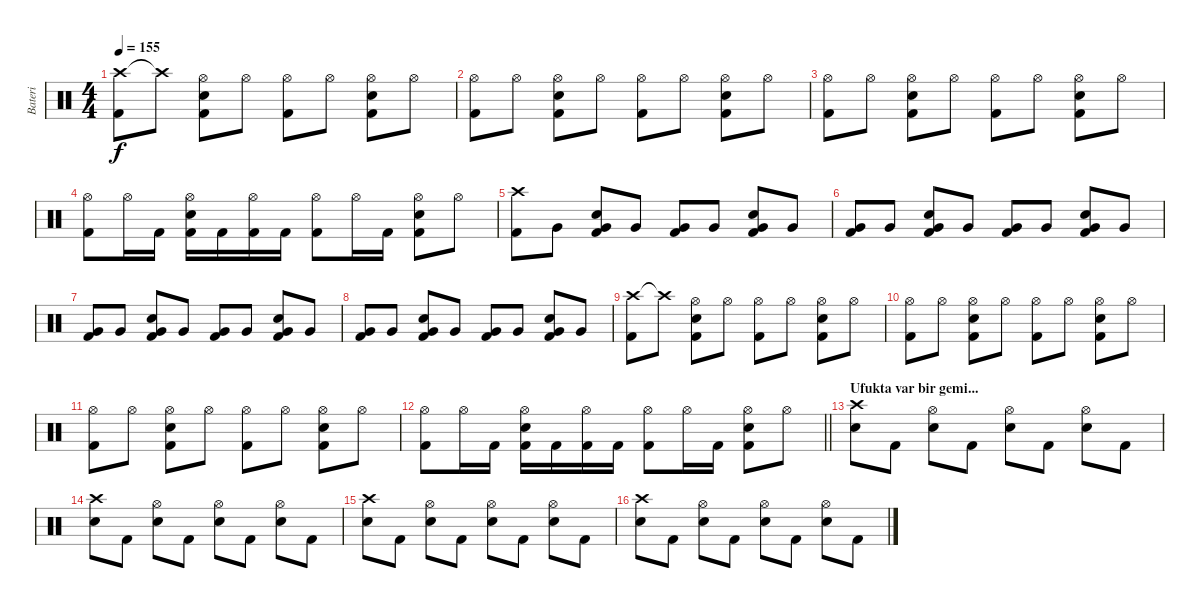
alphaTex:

\track ("Bateri" "Bateri") {instrument percussion}
\staff {score}
\articulation defaults
\ts (4 4)
\tempo 155
\clef neutral
\ks c
("Crash high (hit)" "Kick (hit) 2").8{dy f} "Crash high (hit)"{t}.8 ("Hi-Hat (open)" "Snare (hit) 2" "Kick (hit) 2").8 "Hi-Hat (open)".8 ("Hi-Hat (open)" "Kick (hit) 2").8 "Hi-Hat (open)".8 ("Hi-Hat (open)" "Snare (hit) 2" "Kick (hit) 2").8 "Hi-Hat (open)".8 |
("Hi-Hat (open)" "Kick (hit) 2").8 "Hi-Hat (open)".8 ("Hi-Hat (open)" "Snare (hit) 2" "Kick (hit) 2").8 "Hi-Hat (open)".8 ("Hi-Hat (open)" "Kick (hit) 2").8 "Hi-Hat (open)".8 ("Hi-Hat (open)" "Snare (hit) 2" "Kick (hit) 2").8 "Hi-Hat (open)".8 |
("Hi-Hat (open)" "Kick (hit) 2").8 "Hi-Hat (open)".8 ("Hi-Hat (open)" "Snare (hit) 2" "Kick (hit) 2").8 "Hi-Hat (open)".8 ("Hi-Hat (open)" "Kick (hit) 2").8 "Hi-Hat (open)".8 ("Hi-Hat (open)" "Snare (hit) 2" "Kick (hit) 2").8 "Hi-Hat (open)".8 |
("Hi-Hat (open)" "Kick (hit) 2").8 "Hi-Hat (open)".16 "Kick (hit) 2".16 ("Hi-Hat (open)" "Snare (hit) 2" "Kick (hit) 2").16 "Kick (hit) 2".16 ("Hi-Hat (open)" "Kick (hit) 2").16 "Kick (hit) 2".16 ("Hi-Hat (open)" "Kick (hit) 2").8 "Hi-Hat (open)".16 "Kick (hit) 2".16 ("Hi-Hat (open)" "Snare (hit) 2" "Kick (hit) 2").8 "Hi-Hat (open)".8 |
("Crash high (hit)" "Kick (hit) 2").8 "Very Low Tom (hit)".8 ("Very Low Tom (hit)" "Snare (hit) 2" "Kick (hit) 2").8 "Very Low Tom (hit)".8 ("Very Low Tom (hit)" "Kick (hit) 2").8 "Very Low Tom (hit)".8 ("Very Low Tom (hit)" "Snare (hit) 2" "Kick (hit) 2").8 "Very Low Tom (hit)".8 |
("Very Low Tom (hit)" "Kick (hit) 2").8 "Very Low Tom (hit)".8 ("Very Low Tom (hit)" "Snare (hit) 2" "Kick (hit) 2").8 "Very Low Tom (hit)".8 ("Very Low Tom (hit)" "Kick (hit) 2").8 "Very Low Tom (hit)".8 ("Very Low Tom (hit)" "Snare (hit) 2" "Kick (hit) 2").8 "Very Low Tom (hit)".8 |
("Very Low Tom (hit)" "Kick (hit) 2").8 "Very Low Tom (hit)".8 ("Very Low Tom (hit)" "Snare (hit) 2" "Kick (hit) 2").8 "Very Low Tom (hit)".8 ("Very Low Tom (hit)" "Kick (hit) 2").8 "Very Low Tom (hit)".8 ("Very Low Tom (hit)" "Snare (hit) 2" "Kick (hit) 2").8 "Very Low Tom (hit)".8 |
("Very Low Tom (hit)" "Kick (hit) 2").8 "Very Low Tom (hit)".8 ("Very Low Tom (hit)" "Snare (hit) 2" "Kick (hit) 2").8 "Very Low Tom (hit)".8 ("Very Low Tom (hit)" "Kick (hit) 2").8 "Very Low Tom (hit)".8 ("Very Low Tom (hit)" "Snare (hit) 2" "Kick (hit) 2").8 "Very Low Tom (hit)".8 |
("Crash high (hit)" "Kick (hit) 2").8 "Crash high (hit)"{t}.8 ("Hi-Hat (open)" "Snare (hit) 2" "Kick (hit) 2").8 "Hi-Hat (open)".8 ("Hi-Hat (open)" "Kick (hit) 2").8 "Hi-Hat (open)".8 ("Hi-Hat (open)" "Snare (hit) 2" "Kick (hit) 2").8 "Hi-Hat (open)".8 |
("Hi-Hat (open)" "Kick (hit) 2").8 "Hi-Hat (open)".8 ("Hi-Hat (open)" "Snare (hit) 2" "Kick (hit) 2").8 "Hi-Hat (open)".8 ("Hi-Hat (open)" "Kick (hit) 2").8 "Hi-Hat (open)".8 ("Hi-Hat (open)" "Snare (hit) 2" "Kick (hit) 2").8 "Hi-Hat (open)".8 |
("Hi-Hat (open)" "Kick (hit) 2").8 "Hi-Hat (open)".8 ("Hi-Hat (open)" "Snare (hit) 2" "Kick (hit) 2").8 "Hi-Hat (open)".8 ("Hi-Hat (open)" "Kick (hit) 2").8 "Hi-Hat (open)".8 ("Hi-Hat (open)" "Snare (hit) 2" "Kick (hit) 2").8 "Hi-Hat (open)".8 |
\barLineRight lightlight
("Hi-Hat (open)" "Kick (hit) 2").8 "Hi-Hat (open)".16 "Kick (hit) 2".16 ("Hi-Hat (open)" "Snare (hit) 2" "Kick (hit) 2").16 "Kick (hit) 2".16 ("Hi-Hat (open)" "Kick (hit) 2").16 "Kick (hit) 2".16 ("Hi-Hat (open)" "Kick (hit) 2").8 "Hi-Hat (open)".16 "Kick (hit) 2".16 ("Hi-Hat (open)" "Snare (hit) 2" "Kick (hit) 2").8 "Hi-Hat (open)".8 |
\section ("" "Ufukta var bir gemi...")
("Crash high (hit)" "Snare (hit) 2").8 "Kick (hit) 2".8 ("Hi-Hat (open)" "Snare (hit) 2").8 "Kick (hit) 2".8 ("Hi-Hat (open)" "Snare (hit) 2").8 "Kick (hit) 2".8 ("Hi-Hat (open)" "Snare (hit) 2").8 "Kick (hit) 2".8 |
("Crash high (hit)" "Snare (hit) 2").8 "Kick (hit) 2".8 ("Hi-Hat (open)" "Snare (hit) 2").8 "Kick (hit) 2".8 ("Hi-Hat (open)" "Snare (hit) 2").8 "Kick (hit) 2".8 ("Hi-Hat (open)" "Snare (hit) 2").8 "Kick (hit) 2".8 |
("Crash high (hit)" "Snare (hit) 2").8 "Kick (hit) 2".8 ("Hi-Hat (open)" "Snare (hit) 2").8 "Kick (hit) 2".8 ("Hi-Hat (open)" "Snare (hit) 2").8 "Kick (hit) 2".8 ("Hi-Hat (open)" "Snare (hit) 2").8 "Kick (hit) 2".8 |
("Crash high (hit)" "Snare (hit) 2").8 "Kick (hit) 2".8 ("Hi-Hat (open)" "Snare (hit) 2").8 "Kick (hit) 2".8 ("Hi-Hat (open)" "Snare (hit) 2").8 "Kick (hit) 2".8 ("Hi-Hat (open)" "Snare (hit) 2").8 "Kick (hit) 2".8
